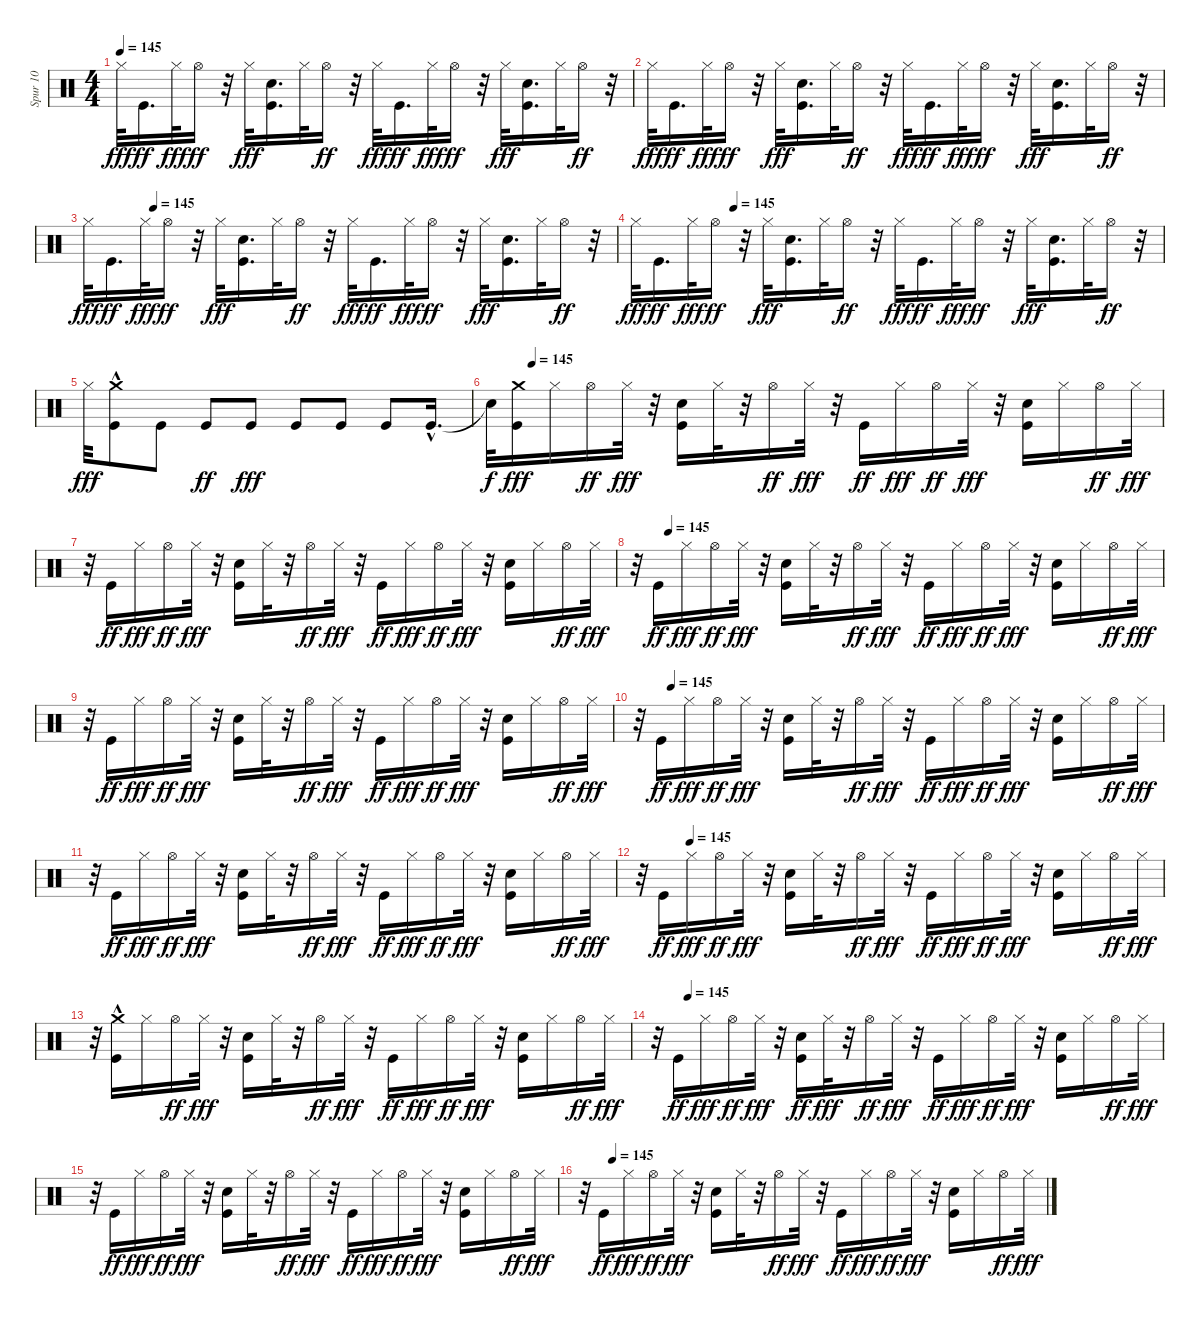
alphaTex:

\track ("Spur 10" "Spur 10") {instrument percussion}
\staff {score}
\articulation defaults
\ts (4 4)
\tempo 145
\clef neutral
\ks c "Hi-Hat (closed)".32{dy fff} "Kick (hit)".16{d dy ff} "Hi-Hat (closed)".32{dy fff} "Hi-Hat (open)".16{dy ff}
r.32 "Hi-Hat (closed)".32{dy fff} ("Kick (hit)" "Hand Clap (hit)").16{d} "Hi-Hat (closed)".32 "Hi-Hat (open)".16{dy ff} r.32 "Hi-Hat (closed)".32{dy fff} "Kick (hit)".16{d dy ff} "Hi-Hat (closed)".32{dy fff} "Hi-Hat (open)".16{dy ff} r.32 "Hi-Hat (closed)".32{dy fff} ("Kick (hit)" "Hand Clap (hit)").16{d} "Hi-Hat (closed)".32 "Hi-Hat (open)".16{dy ff} r.32 |
"Hi-Hat (closed)".32{dy fff} "Kick (hit)".16{d dy ff} "Hi-Hat (closed)".32{dy fff} "Hi-Hat (open)".16{dy ff} r.32 "Hi-Hat (closed)".32{dy fff} ("Kick (hit)" "Hand Clap (hit)").16{d} "Hi-Hat (closed)".32 "Hi-Hat (open)".16{dy ff} r.32 "Hi-Hat (closed)".32{dy fff} "Kick (hit)".16{d dy ff} "Hi-Hat (closed)".32{dy fff} "Hi-Hat (open)".16{dy ff} r.32 "Hi-Hat (closed)".32{dy fff} ("Kick (hit)" "Hand Clap (hit)").16{d} "Hi-Hat (closed)".32 "Hi-Hat (open)".16{dy ff} r.32 |
\tempo (145 0.125)
"Hi-Hat (closed)".32{dy fff} "Kick (hit)".16{d dy ff} "Hi-Hat (closed)".32{dy fff} "Hi-Hat (open)".16{dy ff} r.32 "Hi-Hat (closed)".32{dy fff} ("Kick (hit)" "Hand Clap (hit)").16{d} "Hi-Hat (closed)".32 "Hi-Hat (open)".16{dy ff} r.32 "Hi-Hat (closed)".32{dy fff} "Kick (hit)".16{d dy ff} "Hi-Hat (closed)".32{dy fff} "Hi-Hat (open)".16{dy ff} r.32 "Hi-Hat (closed)".32{dy fff} ("Kick (hit)" "Hand Clap (hit)").16{d} "Hi-Hat (closed)".32 "Hi-Hat (open)".16{dy ff} r.32 |
\tempo (145 0.1875)
"Hi-Hat (closed)".32{dy fff} "Kick (hit)".16{d dy ff} "Hi-Hat (closed)".32{dy fff} "Hi-Hat (open)".16{dy ff} r.32 "Hi-Hat (closed)".32{dy fff} ("Kick (hit)" "Hand Clap (hit)").16{d} "Hi-Hat (closed)".32 "Hi-Hat (open)".16{dy ff} r.32 "Hi-Hat (closed)".32{dy fff} "Kick (hit)".16{d dy ff} "Hi-Hat (closed)".32{dy fff} "Hi-Hat (open)".16{dy ff} r.32 "Hi-Hat (closed)".32{dy fff} ("Kick (hit)" "Hand Clap (hit)").16{d} "Hi-Hat (closed)".32 "Hi-Hat (open)".16{dy ff} r.32 |
"Hi-Hat (closed)".32{dy fff} ("Kick (hit)" "Crash medium (hit)"{hac}).8 "Kick (hit)".8 "Kick (hit)".8{dy ff} "Kick (hit)".8{dy fff} "Kick (hit)".8 "Kick (hit)".8 "Kick (hit)".8 "Kick (hit)"{hac}.16{d} |
\tempo (145 0.0625)
"Snare (hit)"{t}.32{dy f} ("Kick (hit)" "Crash medium (hit)").16{dy fff} "Hi-Hat (closed)".16 "Hi-Hat (open)".16{dy ff} "Hi-Hat (closed)".32{dy fff} r.32 ("Kick (hit)" "Hand Clap (hit)").16 "Hi-Hat (closed)".32 r.32 "Hi-Hat (open)".16{dy ff} "Hi-Hat (closed)".32{dy fff} r.32 "Kick (hit)".16{dy ff} "Hi-Hat (closed)".16{dy fff} "Hi-Hat (open)".16{dy ff} "Hi-Hat (closed)".32{dy fff} r.32 ("Kick (hit)" "Hand Clap (hit)").16 "Hi-Hat (closed)".16 "Hi-Hat (open)".16{dy ff} "Hi-Hat (closed)".32{dy fff} |
r.32 "Kick (hit)".16{dy ff} "Hi-Hat (closed)".16{dy fff} "Hi-Hat (open)".16{dy ff} "Hi-Hat (closed)".32{dy fff} r.32 ("Kick (hit)" "Hand Clap (hit)").16 "Hi-Hat (closed)".32 r.32 "Hi-Hat (open)".16{dy ff} "Hi-Hat (closed)".32{dy fff} r.32 "Kick (hit)".16{dy ff} "Hi-Hat (closed)".16{dy fff} "Hi-Hat (open)".16{dy ff} "Hi-Hat (closed)".32{dy fff} r.32 ("Kick (hit)" "Hand Clap (hit)").16 "Hi-Hat (closed)".16 "Hi-Hat (open)".16{dy ff} "Hi-Hat (closed)".32{dy fff} |
\tempo (145 0.0625)
r.32 "Kick (hit)".16{dy ff} "Hi-Hat (closed)".16{dy fff} "Hi-Hat (open)".16{dy ff} "Hi-Hat (closed)".32{dy fff} r.32 ("Kick (hit)" "Hand Clap (hit)").16 "Hi-Hat (closed)".32 r.32 "Hi-Hat (open)".16{dy ff} "Hi-Hat (closed)".32{dy fff} r.32 "Kick (hit)".16{dy ff} "Hi-Hat (closed)".16{dy fff} "Hi-Hat (open)".16{dy ff} "Hi-Hat (closed)".32{dy fff} r.32 ("Kick (hit)" "Hand Clap (hit)").16 "Hi-Hat (closed)".16 "Hi-Hat (open)".16{dy ff} "Hi-Hat (closed)".32{dy fff} |
r.32 "Kick (hit)".16{dy ff} "Hi-Hat (closed)".16{dy fff} "Hi-Hat (open)".16{dy ff} "Hi-Hat (closed)".32{dy fff} r.32 ("Kick (hit)" "Hand Clap (hit)").16 "Hi-Hat (closed)".32 r.32 "Hi-Hat (open)".16{dy ff} "Hi-Hat (closed)".32{dy fff} r.32 "Kick (hit)".16{dy ff} "Hi-Hat (closed)".16{dy fff} "Hi-Hat (open)".16{dy ff} "Hi-Hat (closed)".32{dy fff} r.32 ("Kick (hit)" "Hand Clap (hit)").16 "Hi-Hat (closed)".16 "Hi-Hat (open)".16{dy ff} "Hi-Hat (closed)".32{dy fff} |
\tempo (145 0.0625)
r.32 "Kick (hit)".16{dy ff} "Hi-Hat (closed)".16{dy fff} "Hi-Hat (open)".16{dy ff} "Hi-Hat (closed)".32{dy fff} r.32 ("Kick (hit)" "Hand Clap (hit)").16 "Hi-Hat (closed)".32 r.32 "Hi-Hat (open)".16{dy ff} "Hi-Hat (closed)".32{dy fff} r.32 "Kick (hit)".16{dy ff} "Hi-Hat (closed)".16{dy fff} "Hi-Hat (open)".16{dy ff} "Hi-Hat (closed)".32{dy fff} r.32 ("Kick (hit)" "Hand Clap (hit)").16 "Hi-Hat (closed)".16 "Hi-Hat (open)".16{dy ff} "Hi-Hat (closed)".32{dy fff} |
r.32 "Kick (hit)".16{dy ff} "Hi-Hat (closed)".16{dy fff} "Hi-Hat (open)".16{dy ff} "Hi-Hat (closed)".32{dy fff} r.32 ("Kick (hit)" "Hand Clap (hit)").16 "Hi-Hat (closed)".32 r.32 "Hi-Hat (open)".16{dy ff} "Hi-Hat (closed)".32{dy fff} r.32 "Kick (hit)".16{dy ff} "Hi-Hat (closed)".16{dy fff} "Hi-Hat (open)".16{dy ff} "Hi-Hat (closed)".32{dy fff} r.32 ("Kick (hit)" "Hand Clap (hit)").16 "Hi-Hat (closed)".16 "Hi-Hat (open)".16{dy ff} "Hi-Hat (closed)".32{dy fff} |
\tempo (145 0.09375)
r.32 "Kick (hit)".16{dy ff} "Hi-Hat (closed)".16{dy fff} "Hi-Hat (open)".16{dy ff} "Hi-Hat (closed)".32{dy fff} r.32 ("Kick (hit)" "Hand Clap (hit)").16 "Hi-Hat (closed)".32 r.32 "Hi-Hat (open)".16{dy ff} "Hi-Hat (closed)".32{dy fff} r.32 "Kick (hit)".16{dy ff} "Hi-Hat (closed)".16{dy fff} "Hi-Hat (open)".16{dy ff} "Hi-Hat (closed)".32{dy fff} r.32 ("Kick (hit)" "Hand Clap (hit)").16 "Hi-Hat (closed)".16 "Hi-Hat (open)".16{dy ff} "Hi-Hat (closed)".32{dy fff} |
r.32 ("Kick (hit)" "Crash medium (hit)"{hac}).16 "Hi-Hat (closed)".16 "Hi-Hat (open)".16{dy ff} "Hi-Hat (closed)".32{dy fff} r.32 ("Kick (hit)" "Hand Clap (hit)").16 "Hi-Hat (closed)".32 r.32 "Hi-Hat (open)".16{dy ff} "Hi-Hat (closed)".32{dy fff} r.32 "Kick (hit)".16{dy ff} "Hi-Hat (closed)".16{dy fff} "Hi-Hat (open)".16{dy ff} "Hi-Hat (closed)".32{dy fff} r.32 ("Kick (hit)" "Hand Clap (hit)").16 "Hi-Hat (closed)".16 "Hi-Hat (open)".16{dy ff} "Hi-Hat (closed)".32{dy fff} |
\tempo (145 0.0625)
r.32 "Kick (hit)".16{dy ff} "Hi-Hat (closed)".16{dy fff} "Hi-Hat (open)".16{dy ff} "Hi-Hat (closed)".32{dy fff} r.32 ("Hand Clap (hit)" "Kick (hit)").16{dy ff} "Hi-Hat (closed)".32{dy fff} r.32 "Hi-Hat (open)".16{dy ff} "Hi-Hat (closed)".32{dy fff} r.32 "Kick (hit)".16{dy ff} "Hi-Hat (closed)".16{dy fff} "Hi-Hat (open)".16{dy ff} "Hi-Hat (closed)".32{dy fff} r.32 ("Kick (hit)" "Hand Clap (hit)").16 "Hi-Hat (closed)".16 "Hi-Hat (open)".16{dy ff} "Hi-Hat (closed)".32{dy fff} |
r.32 "Kick (hit)".16{dy ff} "Hi-Hat (closed)".16{dy fff} "Hi-Hat (open)".16{dy ff} "Hi-Hat (closed)".32{dy fff} r.32 ("Kick (hit)" "Hand Clap (hit)").16 "Hi-Hat (closed)".32 r.32 "Hi-Hat (open)".16{dy ff} "Hi-Hat (closed)".32{dy fff} r.32 "Kick (hit)".16{dy ff} "Hi-Hat (closed)".16{dy fff} "Hi-Hat (open)".16{dy ff} "Hi-Hat (closed)".32{dy fff} r.32 ("Kick (hit)" "Hand Clap (hit)").16 "Hi-Hat (closed)".16 "Hi-Hat (open)".16{dy ff} "Hi-Hat (closed)".32{dy fff} |
\tempo (145 0.0625)
r.32 "Kick (hit)".16{dy ff} "Hi-Hat (closed)".16{dy fff} "Hi-Hat (open)".16{dy ff} "Hi-Hat (closed)".32{dy fff} r.32 ("Kick (hit)" "Hand Clap (hit)").16 "Hi-Hat (closed)".32 r.32 "Hi-Hat (open)".16{dy ff} "Hi-Hat (closed)".32{dy fff} r.32 "Kick (hit)".16{dy ff} "Hi-Hat (closed)".16{dy fff} "Hi-Hat (open)".16{dy ff} "Hi-Hat (closed)".32{dy fff} r.32 ("Kick (hit)" "Hand Clap (hit)").16 "Hi-Hat (closed)".16 "Hi-Hat (open)".16{dy ff} "Hi-Hat (closed)".32{dy fff}
